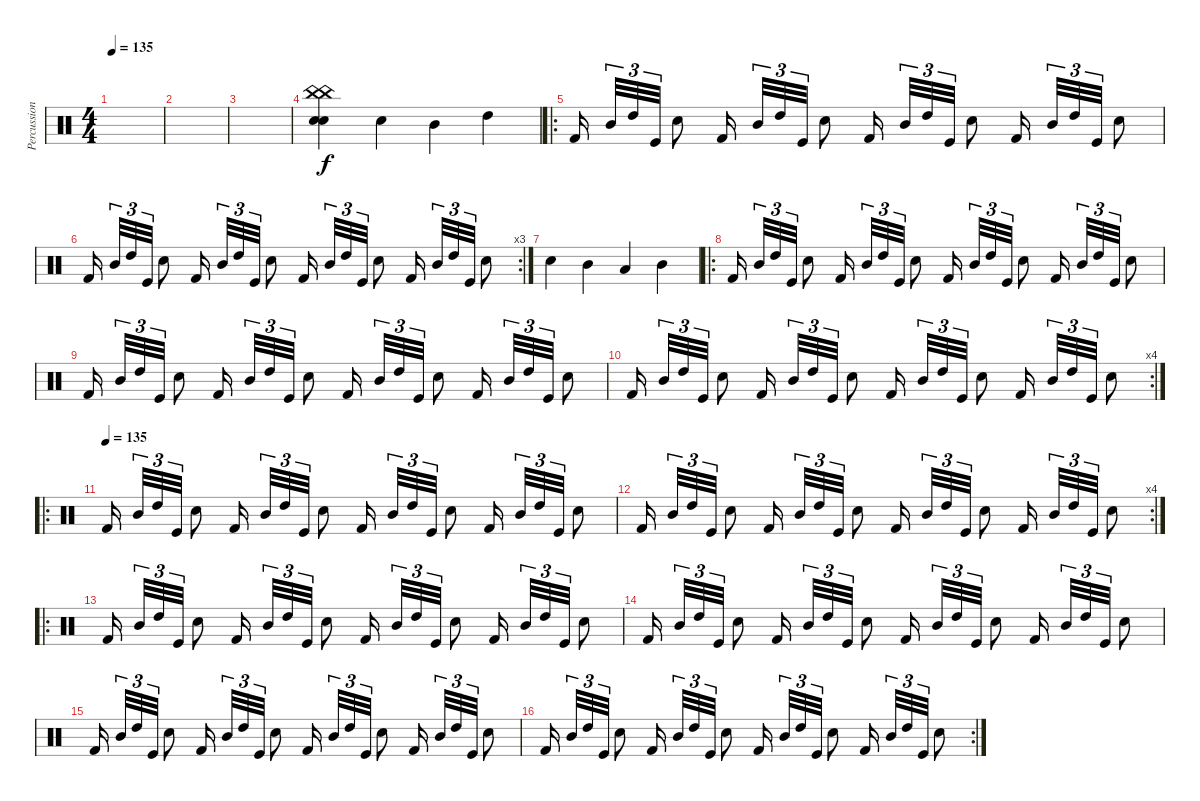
\track ("Percussion" "Percussion") {instrument percussion}
\staff {score}
\articulation defaults
\ts (4 4)
\tempo 135
\clef neutral
\ks c
|
|
|
("Snare (hit) 2" "Snare (hit) 2" "China (hit)" "China (hit)").4 "Snare (hit) 2".4 "Mid Tom (hit)".4 "High Tom (hit)".4 |
\ro "Kick (hit) 2".16 "Mid Tom (hit)".32{tu (3 2)} "High Tom (hit)".32{tu (3 2)} "Kick (hit)".32{tu (3 2)} "Snare (hit) 2".8 "Kick (hit) 2".16 "Mid Tom (hit)".32{tu (3 2)} "High Tom (hit)".32{tu (3 2)} "Kick (hit)".32{tu (3 2)} "Snare (hit) 2".8 "Kick (hit) 2".16 "Mid Tom (hit)".32{tu (3 2)} "High Tom (hit)".32{tu (3 2)} "Kick (hit)".32{tu (3 2)} "Snare (hit) 2".8 "Kick (hit) 2".16 "Mid Tom (hit)".32{tu (3 2)} "High Tom (hit)".32{tu (3 2)} "Kick (hit)".32{tu (3 2)} "Snare (hit) 2".8
|
\rc 3 "Kick (hit) 2".16 "Mid Tom (hit)".32{tu (3 2)} "High Tom (hit)".32{tu (3 2)} "Kick (hit)".32{tu (3 2)} "Snare (hit) 2".8 "Kick (hit) 2".16 "Mid Tom (hit)".32{tu (3 2)} "High Tom (hit)".32{tu (3 2)} "Kick (hit)".32{tu (3 2)} "Snare (hit) 2".8 "Kick (hit) 2".16 "Mid Tom (hit)".32{tu (3 2)} "High Tom (hit)".32{tu (3 2)} "Kick (hit)".32{tu (3 2)} "Snare (hit) 2".8 "Kick (hit) 2".16 "Mid Tom (hit)".32{tu (3 2)} "High Tom (hit)".32{tu (3 2)} "Kick (hit)".32{tu (3 2)} "Snare (hit) 2".8
|
"Snare (hit) 2".4 "Mid Tom (hit)".4 "Low Tom (hit)".4 "Mid Tom (hit)".4 |
\ro "Kick (hit) 2".16 "Mid Tom (hit)".32{tu (3 2)} "High Tom (hit)".32{tu (3 2)} "Kick (hit)".32{tu (3 2)} "Snare (hit) 2".8 "Kick (hit) 2".16 "Mid Tom (hit)".32{tu (3 2)} "High Tom (hit)".32{tu (3 2)} "Kick (hit)".32{tu (3 2)} "Snare (hit) 2".8 "Kick (hit) 2".16 "Mid Tom (hit)".32{tu (3 2)} "High Tom (hit)".32{tu (3 2)} "Kick (hit)".32{tu (3 2)} "Snare (hit) 2".8 "Kick (hit) 2".16 "Mid Tom (hit)".32{tu (3 2)} "High Tom (hit)".32{tu (3 2)} "Kick (hit)".32{tu (3 2)} "Snare (hit) 2".8
|
"Kick (hit) 2".16 "Mid Tom (hit)".32{tu (3 2)} "High Tom (hit)".32{tu (3 2)} "Kick (hit)".32{tu (3 2)} "Snare (hit) 2".8 "Kick (hit) 2".16 "Mid Tom (hit)".32{tu (3 2)} "High Tom (hit)".32{tu (3 2)} "Kick (hit)".32{tu (3 2)} "Snare (hit) 2".8 "Kick (hit) 2".16 "Mid Tom (hit)".32{tu (3 2)} "High Tom (hit)".32{tu (3 2)} "Kick (hit)".32{tu (3 2)} "Snare (hit) 2".8 "Kick (hit) 2".16 "Mid Tom (hit)".32{tu (3 2)} "High Tom (hit)".32{tu (3 2)} "Kick (hit)".32{tu (3 2)} "Snare (hit) 2".8 |
\rc 4 "Kick (hit) 2".16 "Mid Tom (hit)".32{tu (3 2)} "High Tom (hit)".32{tu (3 2)} "Kick (hit)".32{tu (3 2)} "Snare (hit) 2".8 "Kick (hit) 2".16 "Mid Tom (hit)".32{tu (3 2)} "High Tom (hit)".32{tu (3 2)} "Kick (hit)".32{tu (3 2)} "Snare (hit) 2".8 "Kick (hit) 2".16 "Mid Tom (hit)".32{tu (3 2)} "High Tom (hit)".32{tu (3 2)} "Kick (hit)".32{tu (3 2)} "Snare (hit) 2".8 "Kick (hit) 2".16 "Mid Tom (hit)".32{tu (3 2)} "High Tom (hit)".32{tu (3 2)} "Kick (hit)".32{tu (3 2)} "Snare (hit) 2".8
|
\ro
\tempo (135)
"Kick (hit) 2".16 "Mid Tom (hit)".32{tu (3 2)} "High Tom (hit)".32{tu (3 2)} "Kick (hit)".32{tu (3 2)} "Snare (hit) 2".8 "Kick (hit) 2".16 "Mid Tom (hit)".32{tu (3 2)} "High Tom (hit)".32{tu (3 2)} "Kick (hit)".32{tu (3 2)} "Snare (hit) 2".8 "Kick (hit) 2".16 "Mid Tom (hit)".32{tu (3 2)} "High Tom (hit)".32{tu (3 2)} "Kick (hit)".32{tu (3 2)} "Snare (hit) 2".8 "Kick (hit) 2".16 "Mid Tom (hit)".32{tu (3 2)} "High Tom (hit)".32{tu (3 2)} "Kick (hit)".32{tu (3 2)} "Snare (hit) 2".8 |
\rc 4 "Kick (hit) 2".16 "Mid Tom (hit)".32{tu (3 2)} "High Tom (hit)".32{tu (3 2)} "Kick (hit)".32{tu (3 2)} "Snare (hit) 2".8 "Kick (hit) 2".16 "Mid Tom (hit)".32{tu (3 2)} "High Tom (hit)".32{tu (3 2)} "Kick (hit)".32{tu (3 2)} "Snare (hit) 2".8 "Kick (hit) 2".16 "Mid Tom (hit)".32{tu (3 2)} "High Tom (hit)".32{tu (3 2)} "Kick (hit)".32{tu (3 2)} "Snare (hit) 2".8 "Kick (hit) 2".16 "Mid Tom (hit)".32{tu (3 2)} "High Tom (hit)".32{tu (3 2)} "Kick (hit)".32{tu (3 2)} "Snare (hit) 2".8
|
\ro "Kick (hit) 2".16 "Mid Tom (hit)".32{tu (3 2)} "High Tom (hit)".32{tu (3 2)} "Kick (hit)".32{tu (3 2)} "Snare (hit) 2".8 "Kick (hit) 2".16 "Mid Tom (hit)".32{tu (3 2)} "High Tom (hit)".32{tu (3 2)} "Kick (hit)".32{tu (3 2)} "Snare (hit) 2".8 "Kick (hit) 2".16 "Mid Tom (hit)".32{tu (3 2)} "High Tom (hit)".32{tu (3 2)} "Kick (hit)".32{tu (3 2)} "Snare (hit) 2".8 "Kick (hit) 2".16 "Mid Tom (hit)".32{tu (3 2)} "High Tom (hit)".32{tu (3 2)} "Kick (hit)".32{tu (3 2)} "Snare (hit) 2".8
|
"Kick (hit) 2".16 "Mid Tom (hit)".32{tu (3 2)} "High Tom (hit)".32{tu (3 2)} "Kick (hit)".32{tu (3 2)} "Snare (hit) 2".8 "Kick (hit) 2".16 "Mid Tom (hit)".32{tu (3 2)} "High Tom (hit)".32{tu (3 2)} "Kick (hit)".32{tu (3 2)} "Snare (hit) 2".8 "Kick (hit) 2".16 "Mid Tom (hit)".32{tu (3 2)} "High Tom (hit)".32{tu (3 2)} "Kick (hit)".32{tu (3 2)} "Snare (hit) 2".8 "Kick (hit) 2".16 "Mid Tom (hit)".32{tu (3 2)} "High Tom (hit)".32{tu (3 2)} "Kick (hit)".32{tu (3 2)} "Snare (hit) 2".8 |
"Kick (hit) 2".16 "Mid Tom (hit)".32{tu (3 2)} "High Tom (hit)".32{tu (3 2)} "Kick (hit)".32{tu (3 2)} "Snare (hit) 2".8 "Kick (hit) 2".16 "Mid Tom (hit)".32{tu (3 2)} "High Tom (hit)".32{tu (3 2)} "Kick (hit)".32{tu (3 2)} "Snare (hit) 2".8 "Kick (hit) 2".16 "Mid Tom (hit)".32{tu (3 2)} "High Tom (hit)".32{tu (3 2)} "Kick (hit)".32{tu (3 2)} "Snare (hit) 2".8 "Kick (hit) 2".16 "Mid Tom (hit)".32{tu (3 2)} "High Tom (hit)".32{tu (3 2)} "Kick (hit)".32{tu (3 2)} "Snare (hit) 2".8 |
\rc 2 "Kick (hit) 2".16 "Mid Tom (hit)".32{tu (3 2)} "High Tom (hit)".32{tu (3 2)} "Kick (hit)".32{tu (3 2)} "Snare (hit) 2".8 "Kick (hit) 2".16 "Mid Tom (hit)".32{tu (3 2)} "High Tom (hit)".32{tu (3 2)} "Kick (hit)".32{tu (3 2)} "Snare (hit) 2".8 "Kick (hit) 2".16 "Mid Tom (hit)".32{tu (3 2)} "High Tom (hit)".32{tu (3 2)} "Kick (hit)".32{tu (3 2)} "Snare (hit) 2".8 "Kick (hit) 2".16 "Mid Tom (hit)".32{tu (3 2)} "High Tom (hit)".32{tu (3 2)} "Kick (hit)".32{tu (3 2)} "Snare (hit) 2".8
